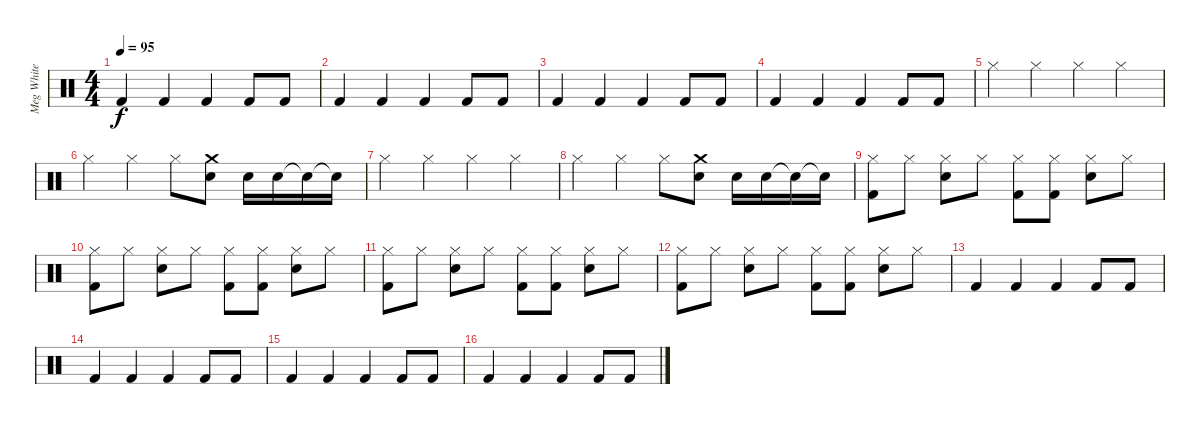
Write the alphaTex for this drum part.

\track ("Meg White - Drums" "Meg White ") {instrument percussion}
\staff {score}
\articulation defaults
\ts (4 4)
\tempo 95
\clef neutral
\ks c "Kick (hit) 2".4{dy f} "Kick (hit) 2".4 "Kick (hit) 2".4 "Kick (hit) 2".8 "Kick (hit) 2".8
|
"Kick (hit) 2".4 "Kick (hit) 2".4 "Kick (hit) 2".4 "Kick (hit) 2".8 "Kick (hit) 2".8 |
"Kick (hit) 2".4 "Kick (hit) 2".4 "Kick (hit) 2".4 "Kick (hit) 2".8 "Kick (hit) 2".8 |
"Kick (hit) 2".4 "Kick (hit) 2".4 "Kick (hit) 2".4 "Kick (hit) 2".8 "Kick (hit) 2".8 |
"Hi-Hat (closed)".4 "Hi-Hat (closed)".4 "Hi-Hat (closed)".4 "Hi-Hat (closed)".4 |
"Hi-Hat (closed)".4 "Hi-Hat (closed)".4 "Hi-Hat (closed)".8 ("Crash medium (hit)" "Snare (hit) 2").8 "Snare (hit) 2".16 "Snare (hit) 2".16 "Snare (hit)"{t}.16 "Snare (hit)"{t}.16 |
"Hi-Hat (closed)".4 "Hi-Hat (closed)".4 "Hi-Hat (closed)".4 "Hi-Hat (closed)".4 |
"Hi-Hat (closed)".4 "Hi-Hat (closed)".4 "Hi-Hat (closed)".8 ("Crash medium (hit)" "Snare (hit) 2").8 "Snare (hit) 2".16 "Snare (hit) 2".16 "Snare (hit)"{t}.16 "Snare (hit)"{t}.16 |
("Hi-Hat (closed)" "Kick (hit) 2").8 "Hi-Hat (closed)".8 ("Snare (hit) 2" "Hi-Hat (closed)").8 "Hi-Hat (closed)".8 ("Hi-Hat (closed)" "Kick (hit) 2").8 ("Hi-Hat (closed)" "Kick (hit) 2").8 ("Snare (hit) 2" "Hi-Hat (closed)").8 "Hi-Hat (closed)".8 |
("Hi-Hat (closed)" "Kick (hit) 2").8 "Hi-Hat (closed)".8 ("Snare (hit) 2" "Hi-Hat (closed)").8 "Hi-Hat (closed)".8 ("Hi-Hat (closed)" "Kick (hit) 2").8 ("Hi-Hat (closed)" "Kick (hit) 2").8 ("Snare (hit) 2" "Hi-Hat (closed)").8 "Hi-Hat (closed)".8 |
("Hi-Hat (closed)" "Kick (hit) 2").8 "Hi-Hat (closed)".8 ("Snare (hit) 2" "Hi-Hat (closed)").8 "Hi-Hat (closed)".8 ("Hi-Hat (closed)" "Kick (hit) 2").8 ("Hi-Hat (closed)" "Kick (hit) 2").8 ("Snare (hit) 2" "Hi-Hat (closed)").8 "Hi-Hat (closed)".8 |
("Hi-Hat (closed)" "Kick (hit) 2").8 "Hi-Hat (closed)".8 ("Snare (hit) 2" "Hi-Hat (closed)").8 "Hi-Hat (closed)".8 ("Hi-Hat (closed)" "Kick (hit) 2").8 ("Hi-Hat (closed)" "Kick (hit) 2").8 ("Snare (hit) 2" "Hi-Hat (closed)").8 "Hi-Hat (closed)".8 |
"Kick (hit) 2".4 "Kick (hit) 2".4 "Kick (hit) 2".4 "Kick (hit) 2".8 "Kick (hit) 2".8 |
"Kick (hit) 2".4 "Kick (hit) 2".4 "Kick (hit) 2".4 "Kick (hit) 2".8 "Kick (hit) 2".8 |
"Kick (hit) 2".4 "Kick (hit) 2".4 "Kick (hit) 2".4 "Kick (hit) 2".8 "Kick (hit) 2".8 |
"Kick (hit) 2".4 "Kick (hit) 2".4 "Kick (hit) 2".4 "Kick (hit) 2".8 "Kick (hit) 2".8
